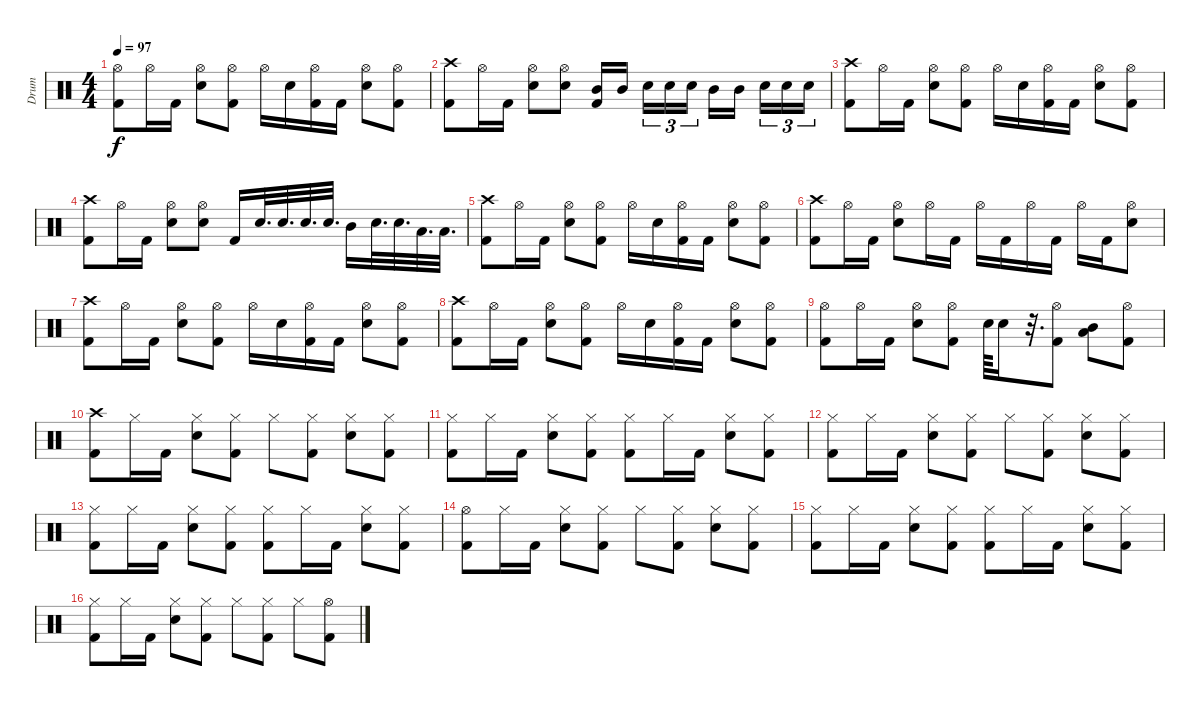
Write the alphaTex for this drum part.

\track ("Drum" "Drum") {instrument percussion}
\staff {score}
\articulation defaults
\ts (4 4)
\tempo 97
\clef neutral
\ks c
("Hi-Hat (open)" "Kick (hit) 2").8{dy f} "Hi-Hat (open)".16 "Kick (hit) 2".16 ("Hi-Hat (open)" "Snare (hit) 2").8 ("Hi-Hat (open)" "Kick (hit) 2").8 "Hi-Hat (open)".16 "Snare (hit) 2".16 ("Hi-Hat (open)" "Kick (hit) 2").16 "Kick (hit) 2".16 ("Hi-Hat (open)" "Snare (hit) 2").8 ("Hi-Hat (open)" "Kick (hit) 2").8 |
("Crash high (hit)" "Kick (hit) 2").8 "Hi-Hat (open)".16 "Kick (hit) 2".16 ("Hi-Hat (open)" "Snare (hit) 2").8 ("Hi-Hat (open)" "Snare (hit) 2").8 ("Mid Tom (hit)" "Kick (hit) 2").16 "Mid Tom (hit)".16{beam splitsecondary} "Snare (hit) 2".16{tu (3 2)} "Snare (hit) 2".16{tu (3 2)} "Snare (hit) 2".16{tu (3 2)} "Mid Tom (hit)".16 "Mid Tom (hit)".16{beam splitsecondary} "Snare (hit) 2".16{tu (3 2)} "Snare (hit) 2".16{tu (3 2)} "Snare (hit) 2".16{tu (3 2)} |
("Crash high (hit)" "Kick (hit) 2").8 "Hi-Hat (open)".16 "Kick (hit) 2".16 ("Hi-Hat (open)" "Snare (hit) 2").8 ("Hi-Hat (open)" "Kick (hit) 2").8 "Hi-Hat (open)".16 "Snare (hit) 2".16 ("Hi-Hat (open)" "Kick (hit) 2").16 "Kick (hit) 2".16 ("Hi-Hat (open)" "Snare (hit) 2").8 ("Hi-Hat (open)" "Kick (hit) 2").8 |
("Crash high (hit)" "Kick (hit) 2").8 "Hi-Hat (open)".16 "Kick (hit) 2".16 ("Hi-Hat (open)" "Snare (hit) 2").8 ("Hi-Hat (open)" "Snare (hit) 2").8 "Kick (hit) 2".16 "Snare (hit) 2".32{d} "Snare (hit) 2".32{d} "Snare (hit) 2".32{d} "Snare (hit) 2".32{d} "Mid Tom (hit)".16 "Snare (hit) 2".32{d} "Snare (hit) 2".32{d} "Low Tom (hit)".32{d} "Low Tom (hit)".32{d} |
("Crash high (hit)" "Kick (hit) 2").8 "Hi-Hat (open)".16 "Kick (hit) 2".16 ("Hi-Hat (open)" "Snare (hit) 2").8 ("Hi-Hat (open)" "Kick (hit) 2").8 "Hi-Hat (open)".16 "Snare (hit) 2".16 ("Hi-Hat (open)" "Kick (hit) 2").16 "Kick (hit) 2".16 ("Hi-Hat (open)" "Snare (hit) 2").8 ("Hi-Hat (open)" "Kick (hit) 2").8 |
("Crash high (hit)" "Kick (hit) 2").8 "Hi-Hat (open)".16 "Kick (hit) 2".16 ("Hi-Hat (open)" "Snare (hit) 2").8 "Hi-Hat (open)".16 "Kick (hit) 2".16 "Hi-Hat (open)".16 "Kick (hit) 2".16 "Hi-Hat (open)".16 "Kick (hit) 2".16 "Hi-Hat (open)".16 "Kick (hit) 2".16 ("Hi-Hat (open)" "Snare (hit) 2").8 |
("Crash high (hit)" "Kick (hit) 2").8 "Hi-Hat (open)".16 "Kick (hit) 2".16 ("Hi-Hat (open)" "Snare (hit) 2").8 ("Hi-Hat (open)" "Kick (hit) 2").8 "Hi-Hat (open)".16 "Snare (hit) 2".16 ("Hi-Hat (open)" "Kick (hit) 2").16 "Kick (hit) 2".16 ("Hi-Hat (open)" "Snare (hit) 2").8 ("Hi-Hat (open)" "Kick (hit) 2").8 |
("Crash high (hit)" "Kick (hit) 2").8 "Hi-Hat (open)".16 "Kick (hit) 2".16 ("Hi-Hat (open)" "Snare (hit) 2").8 ("Hi-Hat (open)" "Kick (hit) 2").8 "Hi-Hat (open)".16 "Snare (hit) 2".16 ("Hi-Hat (open)" "Kick (hit) 2").16 "Kick (hit) 2".16 ("Hi-Hat (open)" "Snare (hit) 2").8 ("Hi-Hat (open)" "Kick (hit) 2").8 |
("Hi-Hat (open)" "Kick (hit) 2").8 "Hi-Hat (open)".16 "Kick (hit) 2".16 ("Hi-Hat (open)" "Snare (hit) 2").8 ("Hi-Hat (open)" "Kick (hit) 2").8 "Snare (hit) 2".64 "Snare (hit) 2".16 r.32{d} ("Hi-Hat (open)" "Kick (hit) 2").8 ("Low Tom (hit)" "Mid Tom (hit)").8 ("Hi-Hat (open)" "Kick (hit) 2").8 |
("Crash high (hit)" "Kick (hit) 2").8 "Hi-Hat (closed)".16 "Kick (hit) 2".16 ("Hi-Hat (closed)" "Snare (hit) 2").8 ("Hi-Hat (closed)" "Kick (hit) 2").8 "Hi-Hat (closed)".8 ("Hi-Hat (closed)" "Kick (hit) 2").8 ("Hi-Hat (closed)" "Snare (hit) 2").8 ("Hi-Hat (closed)" "Kick (hit) 2").8 |
("Hi-Hat (closed)" "Kick (hit) 2").8 "Hi-Hat (closed)".16 "Kick (hit) 2".16 ("Hi-Hat (closed)" "Snare (hit) 2").8 ("Hi-Hat (closed)" "Kick (hit) 2").8 ("Hi-Hat (closed)" "Kick (hit) 2").8 "Hi-Hat (closed)".16 "Kick (hit) 2".16 ("Hi-Hat (closed)" "Snare (hit) 2").8 ("Hi-Hat (closed)" "Kick (hit) 2").8 |
("Hi-Hat (closed)" "Kick (hit) 2").8 "Hi-Hat (closed)".16 "Kick (hit) 2".16 ("Hi-Hat (closed)" "Snare (hit) 2").8 ("Hi-Hat (closed)" "Kick (hit) 2").8 "Hi-Hat (closed)".8 ("Hi-Hat (closed)" "Kick (hit) 2").8 ("Hi-Hat (closed)" "Snare (hit) 2").8 ("Hi-Hat (closed)" "Kick (hit) 2").8 |
("Hi-Hat (closed)" "Kick (hit) 2").8 "Hi-Hat (closed)".16 "Kick (hit) 2".16 ("Hi-Hat (closed)" "Snare (hit) 2").8 ("Hi-Hat (closed)" "Kick (hit) 2").8 ("Hi-Hat (closed)" "Kick (hit) 2").8 "Hi-Hat (closed)".16 "Kick (hit) 2".16 ("Hi-Hat (closed)" "Snare (hit) 2").8 ("Hi-Hat (closed)" "Kick (hit) 2").8 |
("Hi-Hat (open)" "Kick (hit) 2").8 "Hi-Hat (closed)".16 "Kick (hit) 2".16 ("Hi-Hat (closed)" "Snare (hit) 2").8 ("Hi-Hat (closed)" "Kick (hit) 2").8 "Hi-Hat (closed)".8 ("Hi-Hat (closed)" "Kick (hit) 2").8 ("Hi-Hat (closed)" "Snare (hit) 2").8 ("Hi-Hat (closed)" "Kick (hit) 2").8 |
("Hi-Hat (closed)" "Kick (hit) 2").8 "Hi-Hat (closed)".16 "Kick (hit) 2".16 ("Hi-Hat (closed)" "Snare (hit) 2").8 ("Hi-Hat (closed)" "Kick (hit) 2").8 ("Hi-Hat (closed)" "Kick (hit) 2").8 "Hi-Hat (closed)".16 "Kick (hit) 2".16 ("Hi-Hat (closed)" "Snare (hit) 2").8 ("Hi-Hat (closed)" "Kick (hit) 2").8 |
("Hi-Hat (closed)" "Kick (hit) 2").8 "Hi-Hat (closed)".16 "Kick (hit) 2".16 ("Hi-Hat (closed)" "Snare (hit) 2").8 ("Hi-Hat (closed)" "Kick (hit) 2").8 "Hi-Hat (closed)".8 ("Hi-Hat (closed)" "Kick (hit) 2").8 "Hi-Hat (closed)".8 ("Hi-Hat (open)" "Kick (hit) 2").8
